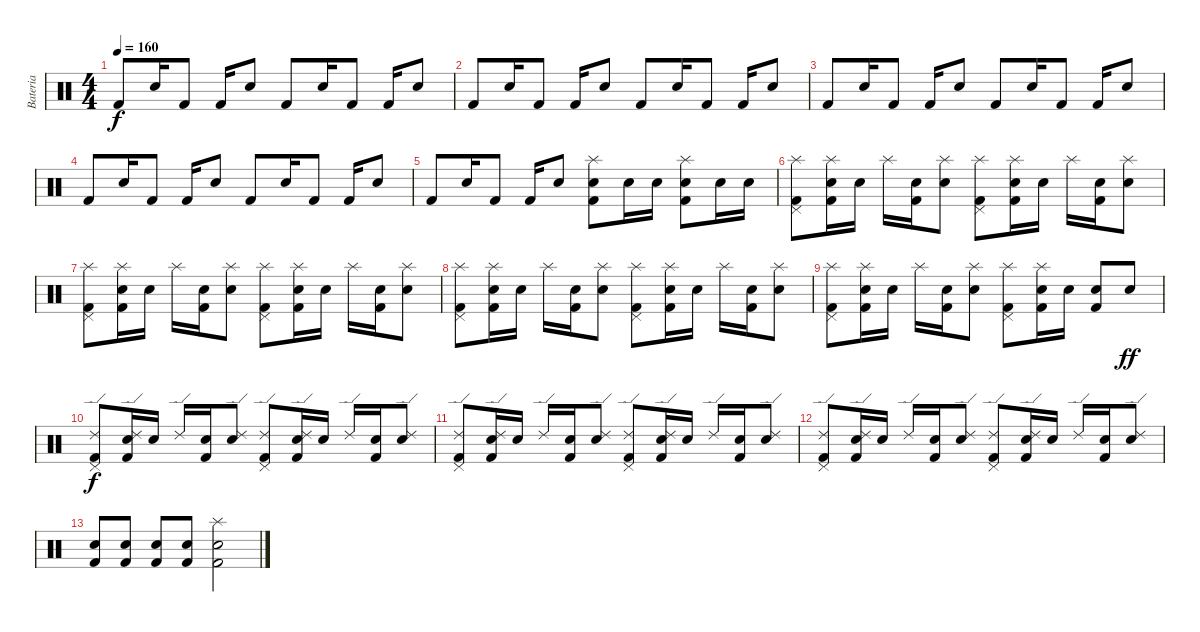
\track ("Bateria" "Bateria") {instrument percussion}
\staff {score}
\articulation defaults
\ts (4 4)
\tempo 160
\clef neutral
\ks c "Kick (hit) 2".8{dy f} "Snare (hit) 2".16 "Kick (hit) 2".8 "Kick (hit) 2".16 "Snare (hit) 2".8 "Kick (hit) 2".8 "Snare (hit) 2".16 "Kick (hit) 2".8 "Kick (hit) 2".16 "Snare (hit) 2".8
|
"Kick (hit) 2".8 "Snare (hit) 2".16 "Kick (hit) 2".8 "Kick (hit) 2".16 "Snare (hit) 2".8 "Kick (hit) 2".8 "Snare (hit) 2".16 "Kick (hit) 2".8 "Kick (hit) 2".16 "Snare (hit) 2".8 |
"Kick (hit) 2".8 "Snare (hit) 2".16 "Kick (hit) 2".8 "Kick (hit) 2".16 "Snare (hit) 2".8 "Kick (hit) 2".8 "Snare (hit) 2".16 "Kick (hit) 2".8 "Kick (hit) 2".16 "Snare (hit) 2".8 |
"Kick (hit) 2".8 "Snare (hit) 2".16 "Kick (hit) 2".8 "Kick (hit) 2".16 "Snare (hit) 2".8 "Kick (hit) 2".8 "Snare (hit) 2".16 "Kick (hit) 2".8 "Kick (hit) 2".16 "Snare (hit) 2".8 |
"Kick (hit) 2".8 "Snare (hit) 2".16 "Kick (hit) 2".8 "Kick (hit) 2".16 "Snare (hit) 2".8 ("Splash (hit)" "Snare (hit) 2" "Kick (hit) 2").8 "Snare (hit) 2".16 "Snare (hit) 2".16 ("Splash (hit)" "Snare (hit) 2" "Kick (hit) 2").8 "Snare (hit) 2".16 "Snare (hit) 2".16 |
("Splash (hit)" "Pedal Hi-Hat (hit)" "Kick (hit) 2").8 ("Splash (hit)" "Snare (hit) 2" "Kick (hit) 2").16 "Snare (hit) 2".16 "Splash (hit)".16 ("Snare (hit) 2" "Kick (hit) 2").16 ("Splash (hit)" "Snare (hit) 2").8 ("Splash (hit)" "Pedal Hi-Hat (hit)" "Kick (hit) 2").8 ("Splash (hit)" "Snare (hit) 2" "Kick (hit) 2").16 "Snare (hit) 2".16 "Splash (hit)".16 ("Snare (hit) 2" "Kick (hit) 2").16 ("Splash (hit)" "Snare (hit) 2").8 |
("Splash (hit)" "Pedal Hi-Hat (hit)" "Kick (hit) 2").8 ("Splash (hit)" "Snare (hit) 2" "Kick (hit) 2").16 "Snare (hit) 2".16 "Splash (hit)".16 ("Snare (hit) 2" "Kick (hit) 2").16 ("Splash (hit)" "Snare (hit) 2").8 ("Splash (hit)" "Pedal Hi-Hat (hit)" "Kick (hit) 2").8 ("Splash (hit)" "Snare (hit) 2" "Kick (hit) 2").16 "Snare (hit) 2".16 "Splash (hit)".16 ("Snare (hit) 2" "Kick (hit) 2").16 ("Splash (hit)" "Snare (hit) 2").8 |
("Splash (hit)" "Pedal Hi-Hat (hit)" "Kick (hit) 2").8 ("Splash (hit)" "Snare (hit) 2" "Kick (hit) 2").16 "Snare (hit) 2".16 "Splash (hit)".16 ("Snare (hit) 2" "Kick (hit) 2").16 ("Splash (hit)" "Snare (hit) 2").8 ("Splash (hit)" "Pedal Hi-Hat (hit)" "Kick (hit) 2").8 ("Splash (hit)" "Snare (hit) 2" "Kick (hit) 2").16 "Snare (hit) 2".16 "Splash (hit)".16 ("Snare (hit) 2" "Kick (hit) 2").16 ("Splash (hit)" "Snare (hit) 2").8 |
("Splash (hit)" "Pedal Hi-Hat (hit)" "Kick (hit) 2").8 ("Splash (hit)" "Snare (hit) 2" "Kick (hit) 2").16 "Snare (hit) 2".16 "Splash (hit)".16 ("Snare (hit) 2" "Kick (hit) 2").16 ("Splash (hit)" "Snare (hit) 2").8 ("Splash (hit)" "Pedal Hi-Hat (hit)" "Kick (hit) 2").8 ("Splash (hit)" "Snare (hit) 2" "Kick (hit) 2").16 "Snare (hit) 2".16 ("Snare (hit) 2" "Kick (hit) 2").8 "Snare (hit) 2".8{dy ff} |
("Ride (edge) 2" "Pedal Hi-Hat (hit)" "Kick (hit) 2").8{dy f} ("Ride (edge) 2" "Snare (hit) 2" "Kick (hit) 2").16 "Snare (hit) 2".16 "Ride (edge) 2".16 ("Snare (hit) 2" "Kick (hit) 2").16 ("Ride (edge) 2" "Snare (hit) 2").8 ("Ride (edge) 2" "Pedal Hi-Hat (hit)" "Kick (hit) 2").8 ("Ride (edge) 2" "Snare (hit) 2" "Kick (hit) 2").16 "Snare (hit) 2".16 "Ride (edge) 2".16 ("Snare (hit) 2" "Kick (hit) 2").16 ("Ride (edge) 2" "Snare (hit) 2").8 |
("Ride (edge) 2" "Pedal Hi-Hat (hit)" "Kick (hit) 2").8 ("Ride (edge) 2" "Snare (hit) 2" "Kick (hit) 2").16 "Snare (hit) 2".16 "Ride (edge) 2".16 ("Snare (hit) 2" "Kick (hit) 2").16 ("Ride (edge) 2" "Snare (hit) 2").8 ("Ride (edge) 2" "Pedal Hi-Hat (hit)" "Kick (hit) 2").8 ("Ride (edge) 2" "Snare (hit) 2" "Kick (hit) 2").16 "Snare (hit) 2".16 "Ride (edge) 2".16 ("Snare (hit) 2" "Kick (hit) 2").16 ("Ride (edge) 2" "Snare (hit) 2").8 |
("Ride (edge) 2" "Pedal Hi-Hat (hit)" "Kick (hit) 2").8 ("Ride (edge) 2" "Snare (hit) 2" "Kick (hit) 2").16 "Snare (hit) 2".16 "Ride (edge) 2".16 ("Snare (hit) 2" "Kick (hit) 2").16 ("Ride (edge) 2" "Snare (hit) 2").8 ("Ride (edge) 2" "Pedal Hi-Hat (hit)" "Kick (hit) 2").8 ("Ride (edge) 2" "Snare (hit) 2" "Kick (hit) 2").16 "Snare (hit) 2".16 "Ride (edge) 2".16 ("Snare (hit) 2" "Kick (hit) 2").16 ("Ride (edge) 2" "Snare (hit) 2").8 |
("Snare (hit) 2" "Kick (hit) 2").8 ("Snare (hit) 2" "Kick (hit) 2").8 ("Snare (hit) 2" "Kick (hit) 2").8 ("Snare (hit) 2" "Kick (hit) 2").8 ("Splash (hit)" "Snare (hit) 2" "Kick (hit) 2").2
